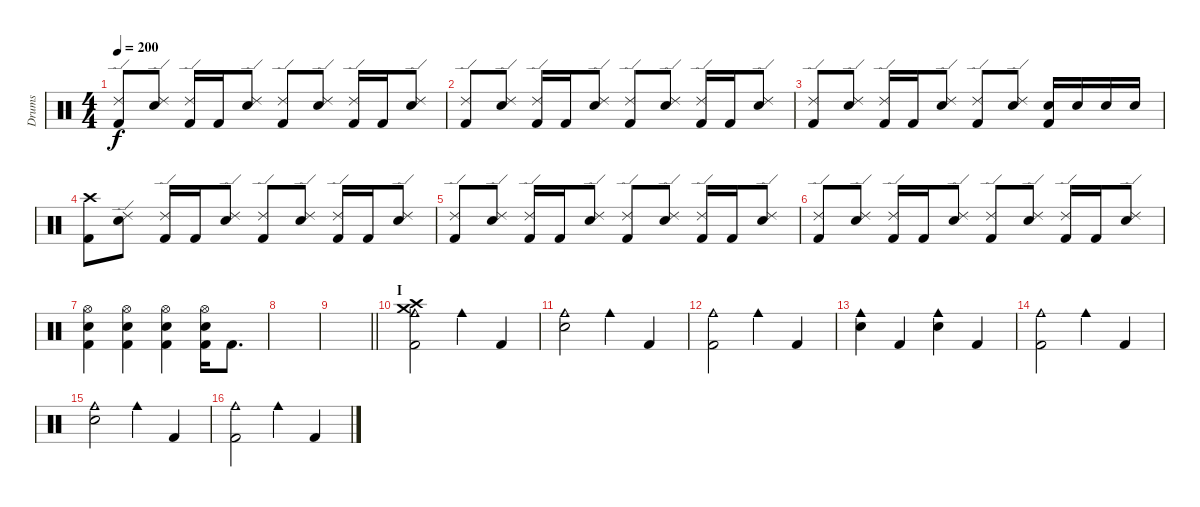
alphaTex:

\track ("Drums" "Drums") {instrument percussion}
\staff {score}
\articulation defaults
\ts (4 4)
\tempo 200
\clef neutral
\ks c
("Ride (edge) 2" "Kick (hit) 2").8{dy f} ("Ride (edge) 2" "Electric Snare (hit)").8 ("Ride (edge) 2" "Kick (hit) 2").16 "Kick (hit) 2".16 ("Ride (edge) 2" "Electric Snare (hit)").8 ("Ride (edge) 2" "Kick (hit) 2").8 ("Electric Snare (hit)" "Ride (edge) 2").8 ("Ride (edge) 2" "Kick (hit) 2").16 "Kick (hit) 2".16 ("Ride (edge) 2" "Electric Snare (hit)").8 |
("Ride (edge) 2" "Kick (hit) 2").8 ("Ride (edge) 2" "Electric Snare (hit)").8 ("Ride (edge) 2" "Kick (hit) 2").16 "Kick (hit) 2".16 ("Ride (edge) 2" "Electric Snare (hit)").8 ("Ride (edge) 2" "Kick (hit) 2").8 ("Electric Snare (hit)" "Ride (edge) 2").8 ("Ride (edge) 2" "Kick (hit) 2").16 "Kick (hit) 2".16 ("Ride (edge) 2" "Electric Snare (hit)").8 |
("Ride (edge) 2" "Kick (hit) 2").8 ("Ride (edge) 2" "Electric Snare (hit)").8 ("Ride (edge) 2" "Kick (hit) 2").16 "Kick (hit) 2".16 ("Ride (edge) 2" "Electric Snare (hit)").8 ("Ride (edge) 2" "Kick (hit) 2").8 ("Electric Snare (hit)" "Ride (edge) 2").8 ("Electric Snare (hit)" "Kick (hit) 2").16 "Electric Snare (hit)".16 "Electric Snare (hit)".16 "Electric Snare (hit)".16 |
("Crash high (hit)" "Kick (hit) 2").8 ("Ride (edge) 2" "Electric Snare (hit)").8 ("Ride (edge) 2" "Kick (hit) 2").16 "Kick (hit) 2".16 ("Ride (edge) 2" "Electric Snare (hit)").8 ("Ride (edge) 2" "Kick (hit) 2").8 ("Electric Snare (hit)" "Ride (edge) 2").8 ("Ride (edge) 2" "Kick (hit) 2").16 "Kick (hit) 2".16 ("Ride (edge) 2" "Electric Snare (hit)").8 |
("Ride (edge) 2" "Kick (hit) 2").8 ("Ride (edge) 2" "Electric Snare (hit)").8 ("Ride (edge) 2" "Kick (hit) 2").16 "Kick (hit) 2".16 ("Ride (edge) 2" "Electric Snare (hit)").8 ("Ride (edge) 2" "Kick (hit) 2").8 ("Electric Snare (hit)" "Ride (edge) 2").8 ("Ride (edge) 2" "Kick (hit) 2").16 "Kick (hit) 2".16 ("Ride (edge) 2" "Electric Snare (hit)").8 |
("Ride (edge) 2" "Kick (hit) 2").8 ("Ride (edge) 2" "Electric Snare (hit)").8 ("Ride (edge) 2" "Kick (hit) 2").16 "Kick (hit) 2".16 ("Ride (edge) 2" "Electric Snare (hit)").8 ("Ride (edge) 2" "Kick (hit) 2").8 ("Electric Snare (hit)" "Ride (edge) 2").8 ("Ride (edge) 2" "Kick (hit) 2").16 "Kick (hit) 2".16 ("Ride (edge) 2" "Electric Snare (hit)").8 |
("Electric Snare (hit)" "Kick (hit) 2" "Hi-Hat (open)").4 ("Electric Snare (hit)" "Kick (hit) 2" "Hi-Hat (open)").4 ("Electric Snare (hit)" "Kick (hit) 2" "Hi-Hat (open)").4 ("Electric Snare (hit)" "Kick (hit) 2" "Hi-Hat (open)").16 "Kick (hit) 2".8{d} |
|
\barLineRight lightlight
|
\section ("" "I")
("Crash medium (hit)" "Crash high (hit)" "Kick (hit) 2" "Cowbell medium (hit)").2 "Cowbell medium (hit)".4 "Kick (hit) 2".4 |
("Electric Snare (hit)" "Cowbell medium (hit)").2 "Cowbell medium (hit)".4 "Kick (hit) 2".4 |
("Cowbell medium (hit)" "Kick (hit) 2").2 "Cowbell medium (hit)".4 "Kick (hit) 2".4 |
("Electric Snare (hit)" "Cowbell medium (hit)").4 "Kick (hit) 2".4 ("Electric Snare (hit)" "Cowbell medium (hit)").4 "Kick (hit) 2".4 |
("Kick (hit) 2" "Cowbell medium (hit)").2 "Cowbell medium (hit)".4 "Kick (hit) 2".4 |
("Electric Snare (hit)" "Cowbell medium (hit)").2 "Cowbell medium (hit)".4 "Kick (hit) 2".4 |
("Cowbell medium (hit)" "Kick (hit) 2").2 "Cowbell medium (hit)".4 "Kick (hit) 2".4
